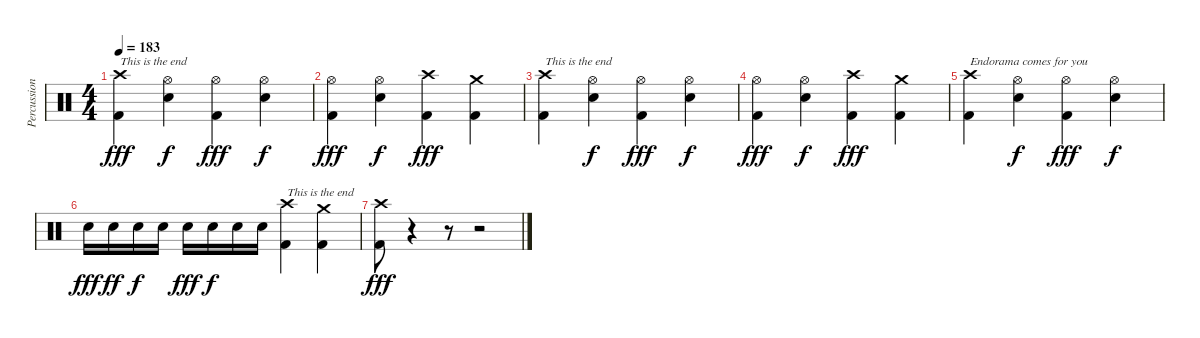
\track ("Percussion" "Percussion") {instrument percussion}
\staff {score}
\articulation defaults
\ts (4 4)
\tempo 183
\clef neutral
\ks c
("Crash high (hit)" "Kick (hit) 2").4{txt "This is the end" dy fff} ("Hi-Hat (open)" "Snare (hit) 2").4{dy f} ("Hi-Hat (open)" "Kick (hit) 2").4{dy fff} ("Hi-Hat (open)" "Snare (hit) 2").4{dy f} |
("Hi-Hat (open)" "Kick (hit) 2").4{dy fff} ("Hi-Hat (open)" "Snare (hit) 2").4{dy f} ("Crash high (hit)" "Kick (hit) 2").4{dy fff} ("Crash medium (hit)" "Kick (hit) 2").4 |
("Crash high (hit)" "Kick (hit) 2").4{txt "This is the end"} ("Hi-Hat (open)" "Snare (hit) 2").4{dy f} ("Hi-Hat (open)" "Kick (hit) 2").4{dy fff} ("Hi-Hat (open)" "Snare (hit) 2").4{dy f} |
("Hi-Hat (open)" "Kick (hit) 2").4{dy fff} ("Hi-Hat (open)" "Snare (hit) 2").4{dy f} ("Crash high (hit)" "Kick (hit) 2").4{dy fff} ("Crash medium (hit)" "Kick (hit) 2").4 |
("Crash high (hit)" "Kick (hit) 2").4{txt "Endorama comes for you"} ("Hi-Hat (open)" "Snare (hit) 2").4{dy f} ("Hi-Hat (open)" "Kick (hit) 2").4{dy fff} ("Hi-Hat (open)" "Snare (hit) 2").4{dy f} |
"Snare (hit) 2".16{dy fff} "Snare (hit) 2".16{dy ff} "Snare (hit) 2".16{dy f} "Snare (hit) 2".16 "Snare (hit) 2".16{dy fff} "Snare (hit) 2".16{dy f} "Snare (hit) 2".16 "Snare (hit) 2".16 ("Crash high (hit)" "Kick (hit) 2").4{txt "This is the end"} ("Crash medium (hit)" "Kick (hit) 2").4 |
("Crash high (hit)" "Kick (hit) 2").8{dy fff} r.4 r.8 r.2
